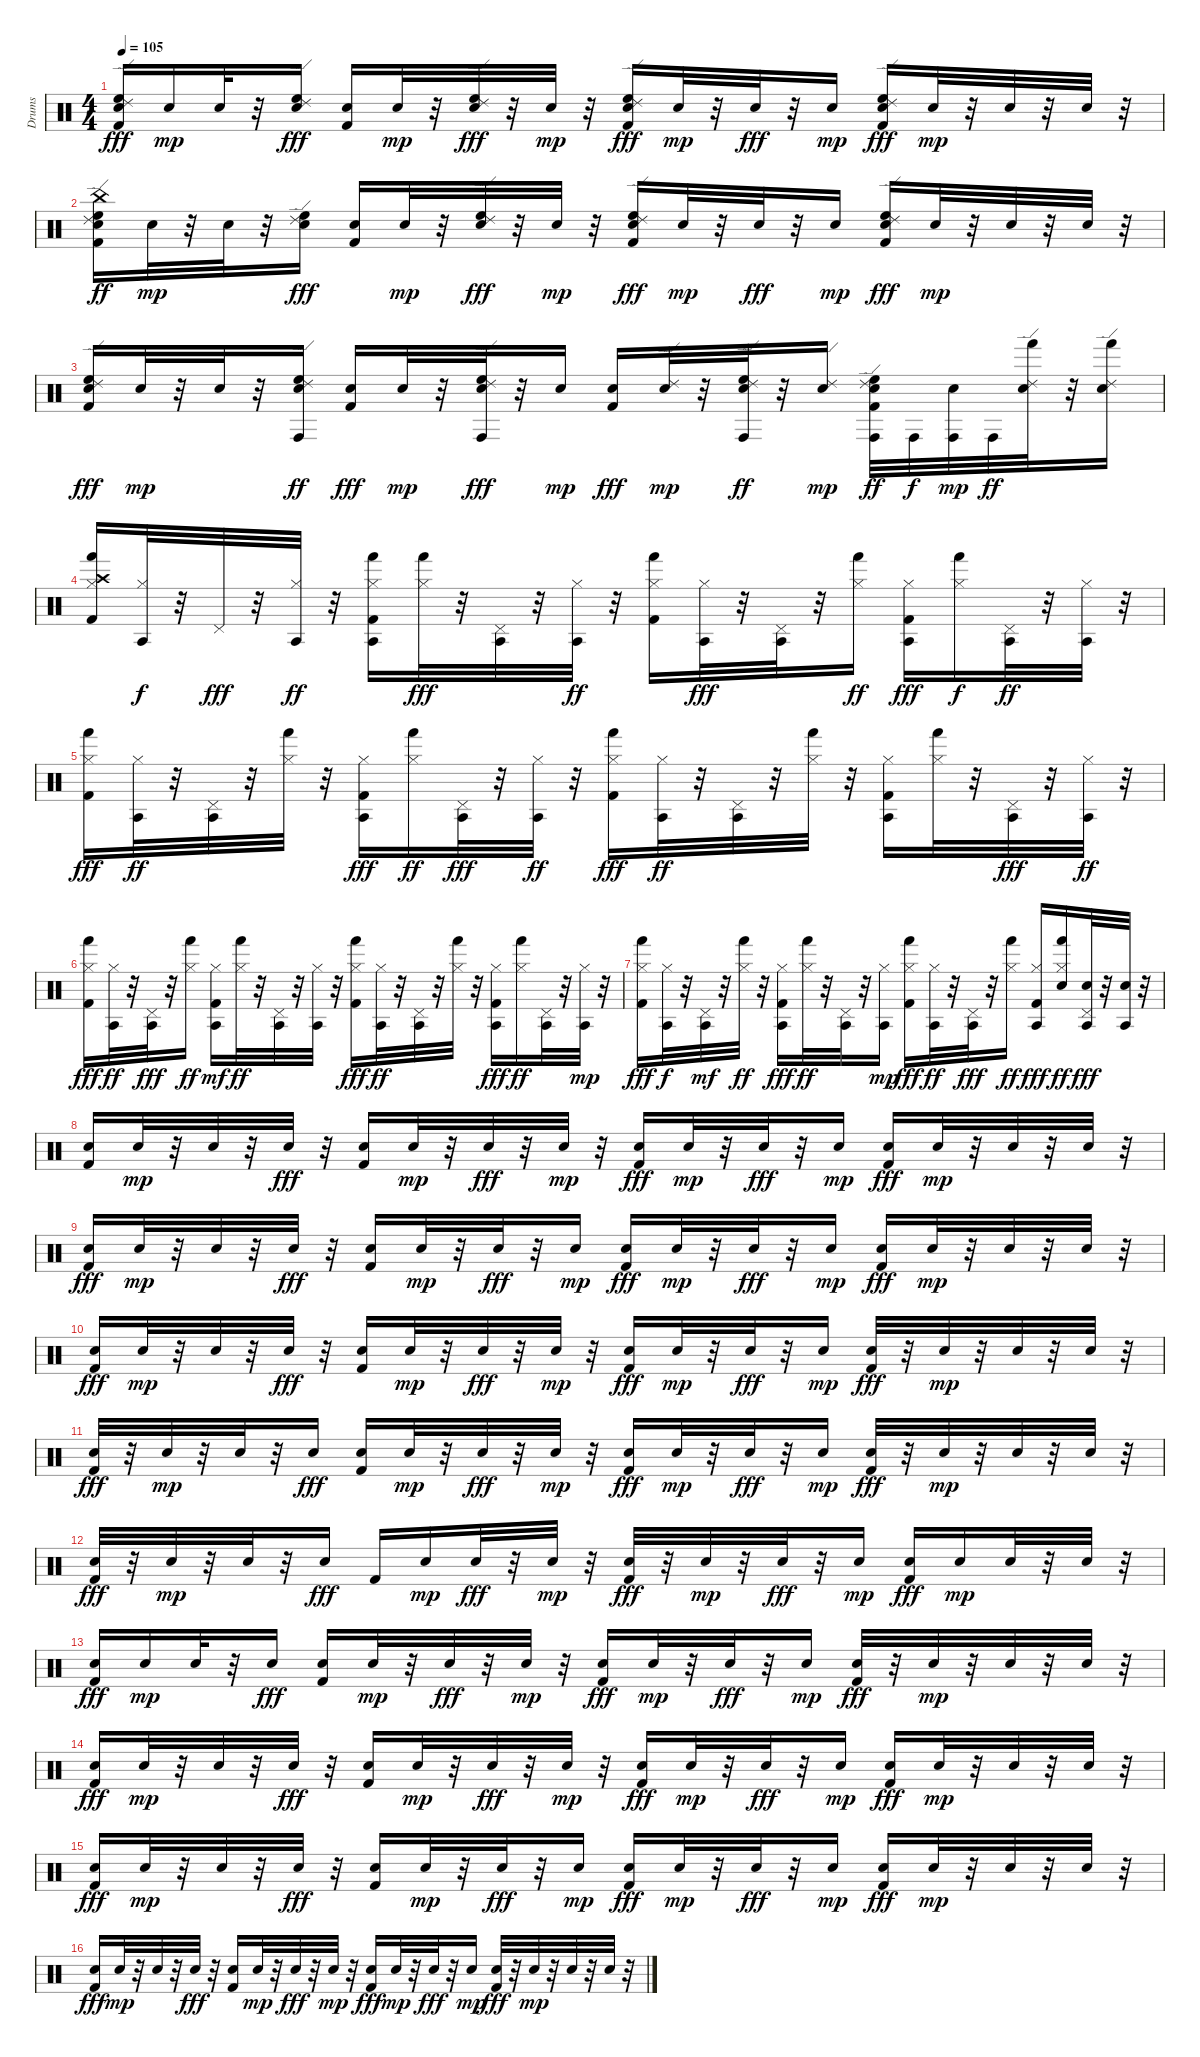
\track ("Drums" "Drums") {instrument percussion}
\staff {score}
\articulation defaults
\ts (4 4)
\tempo 105
\clef neutral
\ks c
("Ride (edge) 2" "High Floor Tom (hit)" "Snare (hit) 2" "Kick (hit) 2").16{dy fff} "Snare (hit) 2".16{dy mp} "Snare (hit) 2".32 r.32 ("High Floor Tom (hit)" "Ride (edge) 2" "Snare (hit) 2").16{dy fff} ("Snare (hit) 2" "Kick (hit) 2").16 "Snare (hit) 2".32{dy mp} r.32 ("High Floor Tom (hit)" "Ride (edge) 2" "Snare (hit) 2").32{dy fff} r.32 "Snare (hit) 2".32{dy mp} r.32 ("Ride (edge) 2" "High Floor Tom (hit)" "Snare (hit) 2" "Kick (hit) 2").16{dy fff} "Snare (hit) 2".32{dy mp} r.32 "Snare (hit) 2".32{dy fff} r.32 "Snare (hit) 2".16{dy mp} ("High Floor Tom (hit)" "Ride (edge) 2" "Snare (hit) 2" "Kick (hit) 2").16{dy fff} "Snare (hit) 2".32{dy mp} r.32 "Snare (hit) 2".32 r.32 "Snare (hit) 2".32 r.32 |
("Snare (hit) 2" "Kick (hit) 2" "Ride (edge) 2" "High Floor Tom (hit)" "China (hit)").16{dy ff} "Snare (hit) 2".32{dy mp} r.32 "Snare (hit) 2".32 r.32 ("Ride (edge) 2" "High Floor Tom (hit)" "Snare (hit) 2").16{dy fff} ("Snare (hit) 2" "Kick (hit) 2").16 "Snare (hit) 2".32{dy mp} r.32 ("High Floor Tom (hit)" "Ride (edge) 2" "Snare (hit) 2").32{dy fff} r.32 "Snare (hit) 2".32{dy mp} r.32 ("Ride (edge) 2" "High Floor Tom (hit)" "Snare (hit) 2" "Kick (hit) 2").16{dy fff} "Snare (hit) 2".32{dy mp} r.32 "Snare (hit) 2".32{dy fff} r.32 "Snare (hit) 2".16{dy mp} ("High Floor Tom (hit)" "Ride (edge) 2" "Snare (hit) 2" "Kick (hit) 2").16{dy fff} "Snare (hit) 2".32{dy mp} r.32 "Snare (hit) 2".32 r.32 "Snare (hit) 2".32 r.32 |
("Snare (hit) 2" "Kick (hit) 2" "Ride (edge) 2" "High Floor Tom (hit)").16{dy fff} "Snare (hit) 2".32{dy mp} r.32 "Snare (hit) 2".32 r.32 ("High Floor Tom (hit)" "Ride (edge) 2" "Snare (hit) 2" "Conga high (hit)").16{dy ff} ("Snare (hit) 2" "Kick (hit) 2").16{dy fff} "Snare (hit) 2".32{dy mp} r.32 ("High Floor Tom (hit)" "Ride (edge) 2" "Snare (hit) 2" "Conga high (hit)").32{dy fff} r.32 "Snare (hit) 2".16{dy mp} ("Snare (hit) 2" "Kick (hit) 2").16{dy fff} ("Ride (edge) 2" "Snare (hit) 2").32{dy mp} r.32 ("Snare (hit) 2" "Ride (edge) 2" "High Floor Tom (hit)" "Conga high (hit)").32{dy ff} r.32 ("Ride (edge) 2" "Snare (hit) 2").16{dy mp} ("High Floor Tom (hit)" "Ride (edge) 2" "Snare (hit) 2" "Kick (hit) 2" "Conga high (hit)").32{dy ff} "Conga high (hit)".32{dy f} ("Snare (hit) 2" "Conga high (hit)").32{dy mp} "Conga high (hit)".32{dy ff} ("Ride (edge) 2" "Snare (hit) 2" "Hand (hit)").32 r.32 ("Ride (edge) 2" "Snare (hit) 2" "Hand (hit)").16 |
("Kick (hit) 2" "Crash high (hit)" "Hi-Hat (closed)" "Hand (hit)").16 ("Hi-Hat (closed)" "Agogo tow (hit)").32{dy f} r.32 "Pedal Hi-Hat (hit)".32{dy fff} r.32 ("Agogo tow (hit)" "Hi-Hat (closed)").32{dy ff} r.32 ("Hand (hit)" "Kick (hit) 2" "Hi-Hat (closed)" "Agogo tow (hit)").16 ("Hi-Hat (closed)" "Hand (hit)").32{dy fff} r.32 ("Pedal Hi-Hat (hit)" "Agogo tow (hit)").32 r.32 ("Hi-Hat (closed)" "Agogo tow (hit)").32{dy ff} r.32 ("Hand (hit)" "Kick (hit) 2" "Hi-Hat (closed)").16 ("Agogo tow (hit)" "Hi-Hat (closed)").32{dy fff} r.32 ("Agogo tow (hit)" "Pedal Hi-Hat (hit)").32 r.32 ("Hand (hit)" "Hi-Hat (closed)").16{dy ff} ("Agogo tow (hit)" "Kick (hit) 2" "Hi-Hat (closed)").16{dy fff} ("Hand (hit)" "Hi-Hat (closed)").16{dy f} ("Agogo tow (hit)" "Pedal Hi-Hat (hit)").32{dy ff} r.32 ("Agogo tow (hit)" "Hi-Hat (closed)").32 r.32 |
("Hand (hit)" "Hi-Hat (closed)" "Kick (hit) 2").16{dy fff} ("Agogo tow (hit)" "Hi-Hat (closed)").32{dy ff} r.32 ("Agogo tow (hit)" "Pedal Hi-Hat (hit)").32 r.32 ("Hi-Hat (closed)" "Hand (hit)").32 r.32 ("Agogo tow (hit)" "Hi-Hat (closed)" "Kick (hit) 2").16{dy fff} ("Hand (hit)" "Hi-Hat (closed)").16{dy ff} ("Agogo tow (hit)" "Pedal Hi-Hat (hit)").32{dy fff} r.32 ("Agogo tow (hit)" "Hi-Hat (closed)").32{dy ff} r.32 ("Hand (hit)" "Kick (hit) 2" "Hi-Hat (closed)").16{dy fff} ("Agogo tow (hit)" "Hi-Hat (closed)").32{dy ff} r.32 ("Agogo tow (hit)" "Pedal Hi-Hat (hit)").32 r.32 ("Hi-Hat (closed)" "Hand (hit)").32 r.32 ("Agogo tow (hit)" "Kick (hit) 2" "Hi-Hat (closed)").16 ("Hand (hit)" "Hi-Hat (closed)").32 r.32 ("Agogo tow (hit)" "Pedal Hi-Hat (hit)").32{dy fff} r.32 ("Agogo tow (hit)" "Hi-Hat (closed)").32{dy ff} r.32 |
("Hand (hit)" "Hi-Hat (closed)" "Kick (hit) 2").16{dy fff} ("Agogo tow (hit)" "Hi-Hat (closed)").32{dy ff} r.32 ("Agogo tow (hit)" "Pedal Hi-Hat (hit)").32{dy fff} r.32 ("Hi-Hat (closed)" "Hand (hit)").16{dy ff} ("Hi-Hat (closed)" "Kick (hit) 2" "Agogo tow (hit)").16{dy mf} ("Hi-Hat (closed)" "Hand (hit)").32{dy ff} r.32 ("Agogo tow (hit)" "Pedal Hi-Hat (hit)").32 r.32 ("Agogo tow (hit)" "Hi-Hat (closed)").32 r.32 ("Hand (hit)" "Hi-Hat (closed)" "Kick (hit) 2").16{dy fff} ("Agogo tow (hit)" "Hi-Hat (closed)").32{dy ff} r.32 ("Agogo tow (hit)" "Pedal Hi-Hat (hit)").32 r.32 ("Hand (hit)" "Hi-Hat (closed)").32 r.32 ("Hi-Hat (closed)" "Kick (hit) 2" "Agogo tow (hit)").16{dy fff} ("Hand (hit)" "Hi-Hat (closed)").16{dy ff} ("Agogo tow (hit)" "Pedal Hi-Hat (hit)").32 r.32 ("Agogo tow (hit)" "Hi-Hat (closed)").32{dy mp} r.32 |
("Hand (hit)" "Hi-Hat (closed)" "Kick (hit) 2").16{dy fff} ("Agogo tow (hit)" "Hi-Hat (closed)").32{dy f} r.32 ("Pedal Hi-Hat (hit)" "Agogo tow (hit)").32{dy mf} r.32 ("Hi-Hat (closed)" "Hand (hit)").32{dy ff} r.32 ("Agogo tow (hit)" "Hi-Hat (closed)" "Kick (hit) 2").16{dy fff} ("Hi-Hat (closed)" "Hand (hit)").32{dy ff} r.32 ("Agogo tow (hit)" "Pedal Hi-Hat (hit)").32 r.32 ("Agogo tow (hit)" "Hi-Hat (closed)").16{dy mp} ("Hand (hit)" "Hi-Hat (closed)" "Kick (hit) 2").16{dy fff} ("Agogo tow (hit)" "Hi-Hat (closed)").32{dy ff} r.32 ("Pedal Hi-Hat (hit)" "Agogo tow (hit)").32{dy fff} r.32 ("Hand (hit)" "Hi-Hat (closed)").16{dy ff} ("Agogo tow (hit)" "Hi-Hat (closed)" "Kick (hit) 2").16{dy fff} ("Hand (hit)" "Snare (hit) 2" "Hi-Hat (closed)").16{dy ff} ("Agogo tow (hit)" "Snare (hit) 2" "Pedal Hi-Hat (hit)").32{dy fff} r.32 ("Agogo tow (hit)" "Snare (hit) 2").32 r.32 |
("Snare (hit) 2" "Kick (hit) 2").16 "Snare (hit) 2".32{dy mp} r.32 "Snare (hit) 2".32 r.32 "Snare (hit) 2".32{dy fff} r.32 ("Snare (hit) 2" "Kick (hit) 2").16 "Snare (hit) 2".32{dy mp} r.32 "Snare (hit) 2".32{dy fff} r.32 "Snare (hit) 2".32{dy mp} r.32 ("Snare (hit) 2" "Kick (hit) 2").16{dy fff} "Snare (hit) 2".32{dy mp} r.32 "Snare (hit) 2".32{dy fff} r.32 "Snare (hit) 2".16{dy mp} ("Snare (hit) 2" "Kick (hit) 2").16{dy fff} "Snare (hit) 2".32{dy mp} r.32 "Snare (hit) 2".32 r.32 "Snare (hit) 2".32 r.32 |
("Snare (hit) 2" "Kick (hit) 2").16{dy fff} "Snare (hit) 2".32{dy mp} r.32 "Snare (hit) 2".32 r.32 "Snare (hit) 2".32{dy fff} r.32 ("Snare (hit) 2" "Kick (hit) 2").16 "Snare (hit) 2".32{dy mp} r.32 "Snare (hit) 2".32{dy fff} r.32 "Snare (hit) 2".16{dy mp} ("Snare (hit) 2" "Kick (hit) 2").16{dy fff} "Snare (hit) 2".32{dy mp} r.32 "Snare (hit) 2".32{dy fff} r.32 "Snare (hit) 2".16{dy mp} ("Snare (hit) 2" "Kick (hit) 2").16{dy fff} "Snare (hit) 2".32{dy mp} r.32 "Snare (hit) 2".32 r.32 "Snare (hit) 2".32 r.32 |
("Kick (hit) 2" "Snare (hit) 2").16{dy fff} "Snare (hit) 2".32{dy mp} r.32 "Snare (hit) 2".32 r.32 "Snare (hit) 2".32{dy fff} r.32 ("Snare (hit) 2" "Kick (hit) 2").16 "Snare (hit) 2".32{dy mp} r.32 "Snare (hit) 2".32{dy fff} r.32 "Snare (hit) 2".32{dy mp} r.32 ("Snare (hit) 2" "Kick (hit) 2").16{dy fff} "Snare (hit) 2".32{dy mp} r.32 "Snare (hit) 2".32{dy fff} r.32 "Snare (hit) 2".16{dy mp} ("Kick (hit) 2" "Snare (hit) 2").32{dy fff} r.32 "Snare (hit) 2".32{dy mp} r.32 "Snare (hit) 2".32 r.32 "Snare (hit) 2".32 r.32 |
("Kick (hit) 2" "Snare (hit) 2").32{dy fff} r.32 "Snare (hit) 2".32{dy mp} r.32 "Snare (hit) 2".32 r.32 "Snare (hit) 2".16{dy fff} ("Snare (hit) 2" "Kick (hit) 2").16 "Snare (hit) 2".32{dy mp} r.32 "Snare (hit) 2".32{dy fff} r.32 "Snare (hit) 2".32{dy mp} r.32 ("Snare (hit) 2" "Kick (hit) 2").16{dy fff} "Snare (hit) 2".32{dy mp} r.32 "Snare (hit) 2".32{dy fff} r.32 "Snare (hit) 2".16{dy mp} ("Kick (hit) 2" "Snare (hit) 2").32{dy fff} r.32 "Snare (hit) 2".32{dy mp} r.32 "Snare (hit) 2".32 r.32 "Snare (hit) 2".32 r.32 |
("Snare (hit) 2" "Kick (hit) 2").32{dy fff} r.32 "Snare (hit) 2".32{dy mp} r.32 "Snare (hit) 2".32 r.32 "Snare (hit) 2".16{dy fff} "Kick (hit) 2".16 "Snare (hit) 2".16{dy mp} "Snare (hit) 2".32{dy fff} r.32 "Snare (hit) 2".32{dy mp} r.32 ("Snare (hit) 2" "Kick (hit) 2").32{dy fff} r.32 "Snare (hit) 2".32{dy mp} r.32 "Snare (hit) 2".32{dy fff} r.32 "Snare (hit) 2".16{dy mp} ("Snare (hit) 2" "Kick (hit) 2").16{dy fff} "Snare (hit) 2".16{dy mp} "Snare (hit) 2".32 r.32 "Snare (hit) 2".32 r.32 |
("Snare (hit) 2" "Kick (hit) 2").16{dy fff} "Snare (hit) 2".16{dy mp} "Snare (hit) 2".32 r.32 "Snare (hit) 2".16{dy fff} ("Snare (hit) 2" "Kick (hit) 2").16 "Snare (hit) 2".32{dy mp} r.32 "Snare (hit) 2".32{dy fff} r.32 "Snare (hit) 2".32{dy mp} r.32 ("Snare (hit) 2" "Kick (hit) 2").16{dy fff} "Snare (hit) 2".32{dy mp} r.32 "Snare (hit) 2".32{dy fff} r.32 "Snare (hit) 2".16{dy mp} ("Snare (hit) 2" "Kick (hit) 2").32{dy fff} r.32 "Snare (hit) 2".32{dy mp} r.32 "Snare (hit) 2".32 r.32 "Snare (hit) 2".32 r.32 |
("Snare (hit) 2" "Kick (hit) 2").16{dy fff} "Snare (hit) 2".32{dy mp} r.32 "Snare (hit) 2".32 r.32 "Snare (hit) 2".32{dy fff} r.32 ("Snare (hit) 2" "Kick (hit) 2").16 "Snare (hit) 2".32{dy mp} r.32 "Snare (hit) 2".32{dy fff} r.32 "Snare (hit) 2".32{dy mp} r.32 ("Snare (hit) 2" "Kick (hit) 2").16{dy fff} "Snare (hit) 2".32{dy mp} r.32 "Snare (hit) 2".32{dy fff} r.32 "Snare (hit) 2".16{dy mp} ("Snare (hit) 2" "Kick (hit) 2").16{dy fff} "Snare (hit) 2".32{dy mp} r.32 "Snare (hit) 2".32 r.32 "Snare (hit) 2".32 r.32 |
("Snare (hit) 2" "Kick (hit) 2").16{dy fff} "Snare (hit) 2".32{dy mp} r.32 "Snare (hit) 2".32 r.32 "Snare (hit) 2".32{dy fff} r.32 ("Snare (hit) 2" "Kick (hit) 2").16 "Snare (hit) 2".32{dy mp} r.32 "Snare (hit) 2".32{dy fff} r.32 "Snare (hit) 2".16{dy mp} ("Snare (hit) 2" "Kick (hit) 2").16{dy fff} "Snare (hit) 2".32{dy mp} r.32 "Snare (hit) 2".32{dy fff} r.32 "Snare (hit) 2".16{dy mp} ("Snare (hit) 2" "Kick (hit) 2").16{dy fff} "Snare (hit) 2".32{dy mp} r.32 "Snare (hit) 2".32 r.32 "Snare (hit) 2".32 r.32 |
("Kick (hit) 2" "Snare (hit) 2").16{dy fff} "Snare (hit) 2".32{dy mp} r.32 "Snare (hit) 2".32 r.32 "Snare (hit) 2".32{dy fff} r.32 ("Snare (hit) 2" "Kick (hit) 2").16 "Snare (hit) 2".32{dy mp} r.32 "Snare (hit) 2".32{dy fff} r.32 "Snare (hit) 2".32{dy mp} r.32 ("Snare (hit) 2" "Kick (hit) 2").16{dy fff} "Snare (hit) 2".32{dy mp} r.32 "Snare (hit) 2".32{dy fff} r.32 "Snare (hit) 2".16{dy mp} ("Kick (hit) 2" "Snare (hit) 2").32{dy fff} r.32 "Snare (hit) 2".32{dy mp} r.32 "Snare (hit) 2".32 r.32 "Snare (hit) 2".32 r.32
